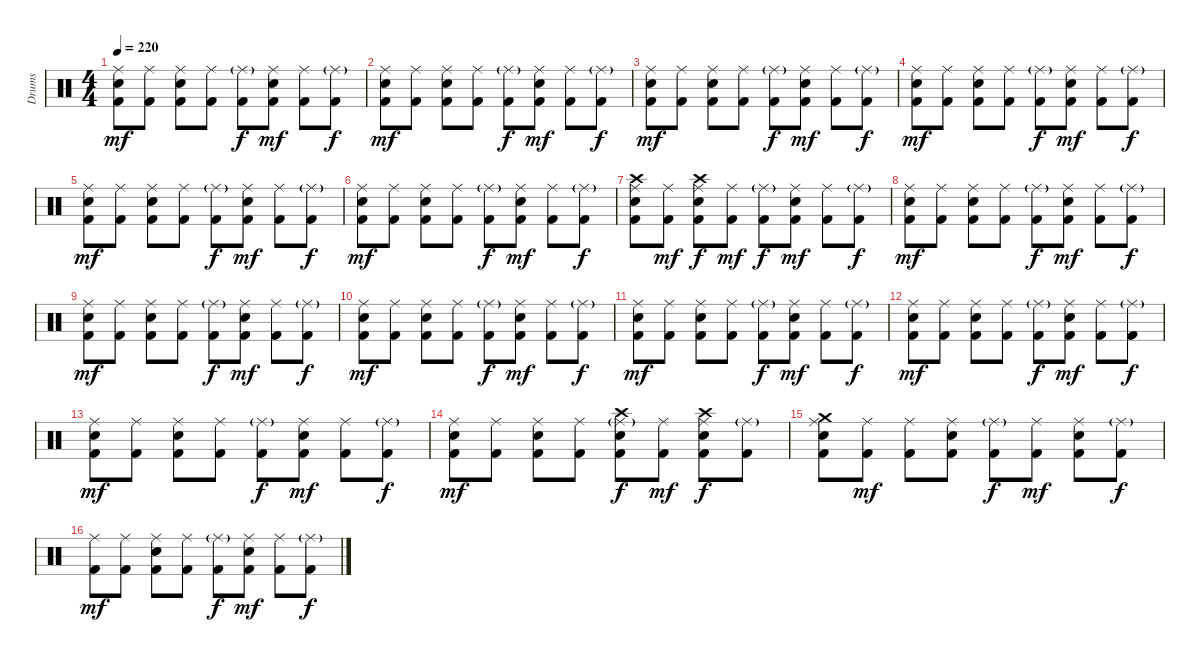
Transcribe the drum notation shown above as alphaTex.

\bracketExtendMode groupsimilarinstruments
\otherSystemsTrackNameOrientation horizontal
\track ("Drumkit" "Drums") {instrument percussion}
\staff {score}
\articulation defaults
\ts (4 4)
\tempo 220
\clef neutral
\ks c
("Ride (middle)" "Snare (hit) 2" "Kick (hit) 2").8{dy mf beam Down} ("Ride (middle)" "Kick (hit) 2").8{beam Down} ("Ride (middle)" "Snare (hit) 2" "Kick (hit) 2").8{beam Down} ("Ride (middle)" "Kick (hit) 2").8{beam Down} ("Ride (middle)"{g} "Kick (hit) 2").8{dy f beam Down} ("Ride (middle)" "Snare (hit) 2" "Kick (hit) 2").8{dy mf beam Down} ("Ride (middle)" "Kick (hit) 2").8{beam Down} ("Ride (middle)"{g} "Kick (hit) 2").8{dy f beam Down} |
("Ride (middle)" "Snare (hit) 2" "Kick (hit) 2").8{dy mf beam Down} ("Ride (middle)" "Kick (hit) 2").8{beam Down} ("Ride (middle)" "Snare (hit) 2" "Kick (hit) 2").8{beam Down} ("Ride (middle)" "Kick (hit) 2").8{beam Down} ("Ride (middle)"{g} "Kick (hit) 2").8{dy f beam Down} ("Ride (middle)" "Snare (hit) 2" "Kick (hit) 2").8{dy mf beam Down} ("Ride (middle)" "Kick (hit) 2").8{beam Down} ("Ride (middle)"{g} "Kick (hit) 2").8{dy f beam Down} |
("Ride (middle)" "Snare (hit) 2" "Kick (hit) 2").8{dy mf beam Down} ("Ride (middle)" "Kick (hit) 2").8{beam Down} ("Ride (middle)" "Snare (hit) 2" "Kick (hit) 2").8{beam Down} ("Ride (middle)" "Kick (hit) 2").8{beam Down} ("Ride (middle)"{g} "Kick (hit) 2").8{dy f beam Down} ("Ride (middle)" "Snare (hit) 2" "Kick (hit) 2").8{dy mf beam Down} ("Ride (middle)" "Kick (hit) 2").8{beam Down} ("Ride (middle)"{g} "Kick (hit) 2").8{dy f beam Down} |
("Ride (middle)" "Snare (hit) 2" "Kick (hit) 2").8{dy mf beam Down} ("Ride (middle)" "Kick (hit) 2").8{beam Down} ("Ride (middle)" "Snare (hit) 2" "Kick (hit) 2").8{beam Down} ("Ride (middle)" "Kick (hit) 2").8{beam Down} ("Ride (middle)"{g} "Kick (hit) 2").8{dy f beam Down} ("Ride (middle)" "Snare (hit) 2" "Kick (hit) 2").8{dy mf beam Down} ("Ride (middle)" "Kick (hit) 2").8{beam Down} ("Ride (middle)"{g} "Kick (hit) 2").8{dy f beam Down} |
("Ride (middle)" "Snare (hit) 2" "Kick (hit) 2").8{dy mf beam Down} ("Ride (middle)" "Kick (hit) 2").8{beam Down} ("Ride (middle)" "Snare (hit) 2" "Kick (hit) 2").8{beam Down} ("Ride (middle)" "Kick (hit) 2").8{beam Down} ("Ride (middle)"{g} "Kick (hit) 2").8{dy f beam Down} ("Ride (middle)" "Snare (hit) 2" "Kick (hit) 2").8{dy mf beam Down} ("Ride (middle)" "Kick (hit) 2").8{beam Down} ("Ride (middle)"{g} "Kick (hit) 2").8{dy f beam Down} |
("Ride (middle)" "Snare (hit) 2" "Kick (hit) 2").8{dy mf beam Down} ("Ride (middle)" "Kick (hit) 2").8{beam Down} ("Ride (middle)" "Snare (hit) 2" "Kick (hit) 2").8{beam Down} ("Ride (middle)" "Kick (hit) 2").8{beam Down} ("Ride (middle)"{g} "Kick (hit) 2").8{dy f beam Down} ("Ride (middle)" "Snare (hit) 2" "Kick (hit) 2").8{dy mf beam Down} ("Ride (middle)" "Kick (hit) 2").8{beam Down} ("Ride (middle)"{g} "Kick (hit) 2").8{dy f beam Down} |
("Crash high (hit)" "Ride (middle)" "Snare (hit) 2" "Kick (hit) 2").8{beam Down} ("Ride (middle)" "Kick (hit) 2").8{dy mf beam Down} ("Crash high (hit)" "Ride (middle)" "Snare (hit) 2" "Kick (hit) 2").8{dy f beam Down} ("Ride (middle)" "Kick (hit) 2").8{dy mf beam Down} ("Ride (middle)"{g} "Kick (hit) 2").8{dy f beam Down} ("Ride (middle)" "Snare (hit) 2" "Kick (hit) 2").8{dy mf beam Down} ("Ride (middle)" "Kick (hit) 2").8{beam Down} ("Ride (middle)"{g} "Kick (hit) 2").8{dy f beam Down} |
("Ride (middle)" "Snare (hit) 2" "Kick (hit) 2").8{dy mf beam Down} ("Ride (middle)" "Kick (hit) 2").8{beam Down} ("Ride (middle)" "Snare (hit) 2" "Kick (hit) 2").8{beam Down} ("Ride (middle)" "Kick (hit) 2").8{beam Down} ("Ride (middle)"{g} "Kick (hit) 2").8{dy f beam Down} ("Ride (middle)" "Snare (hit) 2" "Kick (hit) 2").8{dy mf beam Down} ("Ride (middle)" "Kick (hit) 2").8{beam Down} ("Ride (middle)"{g} "Kick (hit) 2").8{dy f beam Down} |
("Ride (middle)" "Snare (hit) 2" "Kick (hit) 2").8{dy mf beam Down} ("Ride (middle)" "Kick (hit) 2").8{beam Down} ("Ride (middle)" "Snare (hit) 2" "Kick (hit) 2").8{beam Down} ("Ride (middle)" "Kick (hit) 2").8{beam Down} ("Ride (middle)"{g} "Kick (hit) 2").8{dy f beam Down} ("Ride (middle)" "Snare (hit) 2" "Kick (hit) 2").8{dy mf beam Down} ("Ride (middle)" "Kick (hit) 2").8{beam Down} ("Ride (middle)"{g} "Kick (hit) 2").8{dy f beam Down} |
("Ride (middle)" "Snare (hit) 2" "Kick (hit) 2").8{dy mf beam Down} ("Ride (middle)" "Kick (hit) 2").8{beam Down} ("Ride (middle)" "Snare (hit) 2" "Kick (hit) 2").8{beam Down} ("Ride (middle)" "Kick (hit) 2").8{beam Down} ("Ride (middle)"{g} "Kick (hit) 2").8{dy f beam Down} ("Ride (middle)" "Snare (hit) 2" "Kick (hit) 2").8{dy mf beam Down} ("Ride (middle)" "Kick (hit) 2").8{beam Down} ("Ride (middle)"{g} "Kick (hit) 2").8{dy f beam Down} |
("Ride (middle)" "Snare (hit) 2" "Kick (hit) 2").8{dy mf beam Down} ("Ride (middle)" "Kick (hit) 2").8{beam Down} ("Ride (middle)" "Snare (hit) 2" "Kick (hit) 2").8{beam Down} ("Ride (middle)" "Kick (hit) 2").8{beam Down} ("Ride (middle)"{g} "Kick (hit) 2").8{dy f beam Down} ("Ride (middle)" "Snare (hit) 2" "Kick (hit) 2").8{dy mf beam Down} ("Ride (middle)" "Kick (hit) 2").8{beam Down} ("Ride (middle)"{g} "Kick (hit) 2").8{dy f beam Down} |
("Ride (middle)" "Snare (hit) 2" "Kick (hit) 2").8{dy mf beam Down} ("Ride (middle)" "Kick (hit) 2").8{beam Down} ("Ride (middle)" "Snare (hit) 2" "Kick (hit) 2").8{beam Down} ("Ride (middle)" "Kick (hit) 2").8{beam Down} ("Ride (middle)"{g} "Kick (hit) 2").8{dy f beam Down} ("Ride (middle)" "Snare (hit) 2" "Kick (hit) 2").8{dy mf beam Down} ("Ride (middle)" "Kick (hit) 2").8{beam Down} ("Ride (middle)"{g} "Kick (hit) 2").8{dy f beam Down} |
("Ride (middle)" "Snare (hit) 2" "Kick (hit) 2").8{dy mf beam Down} ("Ride (middle)" "Kick (hit) 2").8{beam Down} ("Ride (middle)" "Snare (hit) 2" "Kick (hit) 2").8{beam Down} ("Ride (middle)" "Kick (hit) 2").8{beam Down} ("Ride (middle)"{g} "Kick (hit) 2").8{dy f beam Down} ("Ride (middle)" "Snare (hit) 2" "Kick (hit) 2").8{dy mf beam Down} ("Ride (middle)" "Kick (hit) 2").8{beam Down} ("Ride (middle)"{g} "Kick (hit) 2").8{dy f beam Down} |
("Ride (middle)" "Snare (hit) 2" "Kick (hit) 2").8{dy mf beam Down} ("Ride (middle)" "Kick (hit) 2").8{beam Down} ("Ride (middle)" "Snare (hit) 2" "Kick (hit) 2").8{beam Down} ("Ride (middle)" "Kick (hit) 2").8{beam Down} ("Crash high (hit)" "Ride (middle)"{g} "Snare (hit) 2" "Kick (hit) 2").8{dy f beam Down} ("Ride (middle)" "Kick (hit) 2").8{dy mf beam Down} ("Crash high (hit)" "Ride (middle)" "Snare (hit) 2" "Kick (hit) 2").8{dy f beam Down} ("Ride (middle)"{g} "Kick (hit) 2").8{beam Down} |
("Crash medium (hit)" "Ride (middle)" "Snare (hit) 2" "Kick (hit) 2").8{beam Down} ("Ride (middle)" "Kick (hit) 2").8{dy mf beam Down} ("Ride (middle)" "Kick (hit) 2").8{beam Down} ("Ride (middle)" "Snare (hit) 2" "Kick (hit) 2").8{beam Down} ("Ride (middle)"{g} "Kick (hit) 2").8{dy f beam Down} ("Ride (middle)" "Kick (hit) 2").8{dy mf beam Down} ("Ride (middle)" "Snare (hit) 2" "Kick (hit) 2").8{beam Down} ("Ride (middle)"{g} "Kick (hit) 2").8{dy f beam Down} |
("Ride (middle)" "Kick (hit) 2").8{dy mf beam Down} ("Ride (middle)" "Kick (hit) 2").8{beam Down} ("Ride (middle)" "Snare (hit) 2" "Kick (hit) 2").8{beam Down} ("Ride (middle)" "Kick (hit) 2").8{beam Down} ("Ride (middle)"{g} "Kick (hit) 2").8{dy f beam Down} ("Ride (middle)" "Snare (hit) 2" "Kick (hit) 2").8{dy mf beam Down} ("Ride (middle)" "Kick (hit) 2").8{beam Down} ("Ride (middle)"{g} "Kick (hit) 2").8{dy f beam Down}
